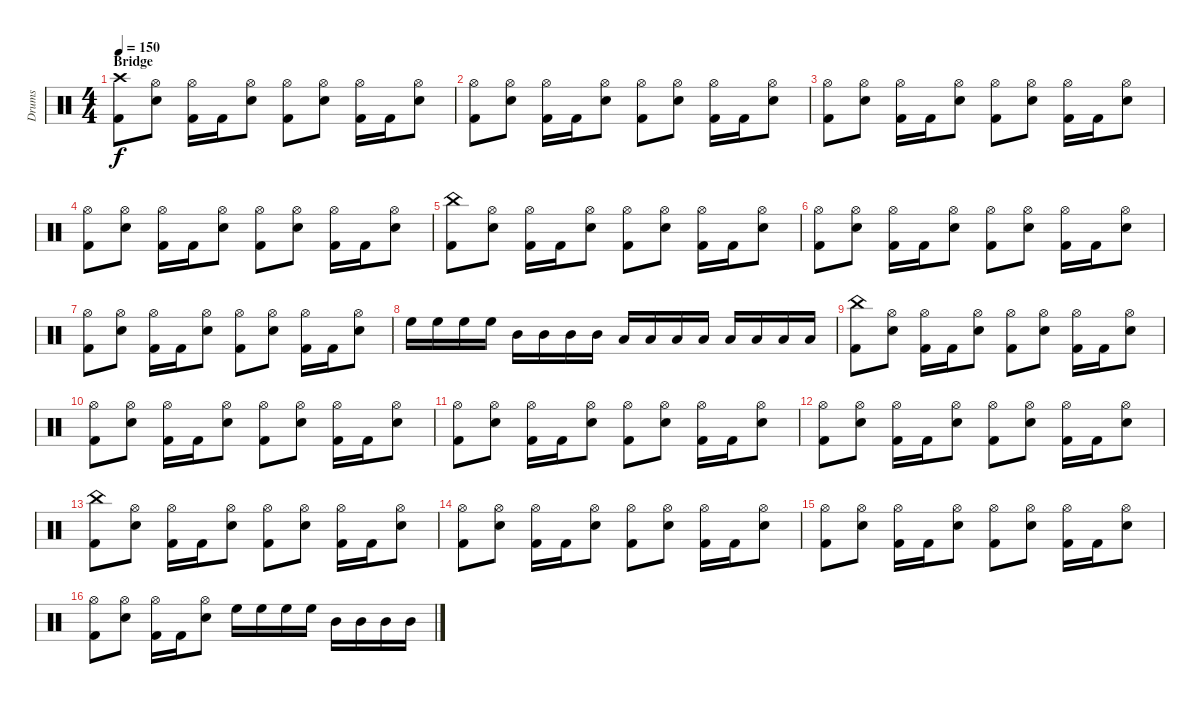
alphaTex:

\track ("Drums" "Drums") {instrument percussion}
\staff {score}
\articulation defaults
\ts (4 4)
\section ("" "Bridge")
\tempo 150
\clef neutral
\ks c
("Crash high (hit)" "Kick (hit) 2").8{dy f} ("Hi-Hat (open)" "Snare (hit) 2").8 ("Hi-Hat (open)" "Kick (hit) 2").16 "Kick (hit) 2".16 ("Hi-Hat (open)" "Snare (hit) 2").8 ("Hi-Hat (open)" "Kick (hit) 2").8 ("Hi-Hat (open)" "Snare (hit) 2").8 ("Hi-Hat (open)" "Kick (hit) 2").16 "Kick (hit) 2".16 ("Hi-Hat (open)" "Snare (hit) 2").8 |
("Hi-Hat (open)" "Kick (hit) 2").8 ("Hi-Hat (open)" "Snare (hit) 2").8 ("Hi-Hat (open)" "Kick (hit) 2").16 "Kick (hit) 2".16 ("Hi-Hat (open)" "Snare (hit) 2").8 ("Hi-Hat (open)" "Kick (hit) 2").8 ("Hi-Hat (open)" "Snare (hit) 2").8 ("Hi-Hat (open)" "Kick (hit) 2").16 "Kick (hit) 2".16 ("Hi-Hat (open)" "Snare (hit) 2").8 |
("Hi-Hat (open)" "Kick (hit) 2").8 ("Hi-Hat (open)" "Snare (hit) 2").8 ("Hi-Hat (open)" "Kick (hit) 2").16 "Kick (hit) 2".16 ("Hi-Hat (open)" "Snare (hit) 2").8 ("Hi-Hat (open)" "Kick (hit) 2").8 ("Hi-Hat (open)" "Snare (hit) 2").8 ("Hi-Hat (open)" "Kick (hit) 2").16 "Kick (hit) 2".16 ("Hi-Hat (open)" "Snare (hit) 2").8 |
("Hi-Hat (open)" "Kick (hit) 2").8 ("Hi-Hat (open)" "Snare (hit) 2").8 ("Hi-Hat (open)" "Kick (hit) 2").16 "Kick (hit) 2".16 ("Hi-Hat (open)" "Snare (hit) 2").8 ("Hi-Hat (open)" "Kick (hit) 2").8 ("Hi-Hat (open)" "Snare (hit) 2").8 ("Hi-Hat (open)" "Kick (hit) 2").16 "Kick (hit) 2".16 ("Hi-Hat (open)" "Snare (hit) 2").8 |
("China (hit)" "Kick (hit) 2").8 ("Hi-Hat (open)" "Snare (hit) 2").8 ("Hi-Hat (open)" "Kick (hit) 2").16 "Kick (hit) 2".16 ("Hi-Hat (open)" "Snare (hit) 2").8 ("Hi-Hat (open)" "Kick (hit) 2").8 ("Hi-Hat (open)" "Snare (hit) 2").8 ("Hi-Hat (open)" "Kick (hit) 2").16 "Kick (hit) 2".16 ("Hi-Hat (open)" "Snare (hit) 2").8 |
("Hi-Hat (open)" "Kick (hit) 2").8 ("Hi-Hat (open)" "Snare (hit) 2").8 ("Hi-Hat (open)" "Kick (hit) 2").16 "Kick (hit) 2".16 ("Hi-Hat (open)" "Snare (hit) 2").8 ("Hi-Hat (open)" "Kick (hit) 2").8 ("Hi-Hat (open)" "Snare (hit) 2").8 ("Hi-Hat (open)" "Kick (hit) 2").16 "Kick (hit) 2".16 ("Hi-Hat (open)" "Snare (hit) 2").8 |
("Hi-Hat (open)" "Kick (hit) 2").8 ("Hi-Hat (open)" "Snare (hit) 2").8 ("Hi-Hat (open)" "Kick (hit) 2").16 "Kick (hit) 2".16 ("Hi-Hat (open)" "Snare (hit) 2").8 ("Hi-Hat (open)" "Kick (hit) 2").8 ("Hi-Hat (open)" "Snare (hit) 2").8 ("Hi-Hat (open)" "Kick (hit) 2").16 "Kick (hit) 2".16 ("Hi-Hat (open)" "Snare (hit) 2").8 |
"High Floor Tom (hit)".16 "High Floor Tom (hit)".16 "High Floor Tom (hit)".16 "High Floor Tom (hit)".16 "Mid Tom (hit)".16 "Mid Tom (hit)".16 "Mid Tom (hit)".16 "Mid Tom (hit)".16 "Low Tom (hit)".16 "Low Tom (hit)".16 "Low Tom (hit)".16 "Low Tom (hit)".16 "Low Floor Tom (hit)".16 "Low Floor Tom (hit)".16 "Low Floor Tom (hit)".16 "Low Floor Tom (hit)".16 |
("China (hit)" "Kick (hit) 2").8 ("Hi-Hat (open)" "Snare (hit) 2").8 ("Hi-Hat (open)" "Kick (hit) 2").16 "Kick (hit) 2".16 ("Hi-Hat (open)" "Snare (hit) 2").8 ("Hi-Hat (open)" "Kick (hit) 2").8 ("Hi-Hat (open)" "Snare (hit) 2").8 ("Hi-Hat (open)" "Kick (hit) 2").16 "Kick (hit) 2".16 ("Hi-Hat (open)" "Snare (hit) 2").8 |
("Hi-Hat (open)" "Kick (hit) 2").8 ("Hi-Hat (open)" "Snare (hit) 2").8 ("Hi-Hat (open)" "Kick (hit) 2").16 "Kick (hit) 2".16 ("Hi-Hat (open)" "Snare (hit) 2").8 ("Hi-Hat (open)" "Kick (hit) 2").8 ("Hi-Hat (open)" "Snare (hit) 2").8 ("Hi-Hat (open)" "Kick (hit) 2").16 "Kick (hit) 2".16 ("Hi-Hat (open)" "Snare (hit) 2").8 |
("Hi-Hat (open)" "Kick (hit) 2").8 ("Hi-Hat (open)" "Snare (hit) 2").8 ("Hi-Hat (open)" "Kick (hit) 2").16 "Kick (hit) 2".16 ("Hi-Hat (open)" "Snare (hit) 2").8 ("Hi-Hat (open)" "Kick (hit) 2").8 ("Hi-Hat (open)" "Snare (hit) 2").8 ("Hi-Hat (open)" "Kick (hit) 2").16 "Kick (hit) 2".16 ("Hi-Hat (open)" "Snare (hit) 2").8 |
("Hi-Hat (open)" "Kick (hit) 2").8 ("Hi-Hat (open)" "Snare (hit) 2").8 ("Hi-Hat (open)" "Kick (hit) 2").16 "Kick (hit) 2".16 ("Hi-Hat (open)" "Snare (hit) 2").8 ("Hi-Hat (open)" "Kick (hit) 2").8 ("Hi-Hat (open)" "Snare (hit) 2").8 ("Hi-Hat (open)" "Kick (hit) 2").16 "Kick (hit) 2".16 ("Hi-Hat (open)" "Snare (hit) 2").8 |
("China (hit)" "Kick (hit) 2").8 ("Hi-Hat (open)" "Snare (hit) 2").8 ("Hi-Hat (open)" "Kick (hit) 2").16 "Kick (hit) 2".16 ("Hi-Hat (open)" "Snare (hit) 2").8 ("Hi-Hat (open)" "Kick (hit) 2").8 ("Hi-Hat (open)" "Snare (hit) 2").8 ("Hi-Hat (open)" "Kick (hit) 2").16 "Kick (hit) 2".16 ("Hi-Hat (open)" "Snare (hit) 2").8 |
("Hi-Hat (open)" "Kick (hit) 2").8 ("Hi-Hat (open)" "Snare (hit) 2").8 ("Hi-Hat (open)" "Kick (hit) 2").16 "Kick (hit) 2".16 ("Hi-Hat (open)" "Snare (hit) 2").8 ("Hi-Hat (open)" "Kick (hit) 2").8 ("Hi-Hat (open)" "Snare (hit) 2").8 ("Hi-Hat (open)" "Kick (hit) 2").16 "Kick (hit) 2".16 ("Hi-Hat (open)" "Snare (hit) 2").8 |
("Hi-Hat (open)" "Kick (hit) 2").8 ("Hi-Hat (open)" "Snare (hit) 2").8 ("Hi-Hat (open)" "Kick (hit) 2").16 "Kick (hit) 2".16 ("Hi-Hat (open)" "Snare (hit) 2").8 ("Hi-Hat (open)" "Kick (hit) 2").8 ("Hi-Hat (open)" "Snare (hit) 2").8 ("Hi-Hat (open)" "Kick (hit) 2").16 "Kick (hit) 2".16 ("Hi-Hat (open)" "Snare (hit) 2").8 |
("Hi-Hat (open)" "Kick (hit) 2").8 ("Hi-Hat (open)" "Snare (hit) 2").8 ("Hi-Hat (open)" "Kick (hit) 2").16 "Kick (hit) 2".16 ("Hi-Hat (open)" "Snare (hit) 2").8 "High Floor Tom (hit)".16 "High Floor Tom (hit)".16 "High Floor Tom (hit)".16 "High Floor Tom (hit)".16 "Mid Tom (hit)".16 "Mid Tom (hit)".16 "Mid Tom (hit)".16 "Mid Tom (hit)".16
